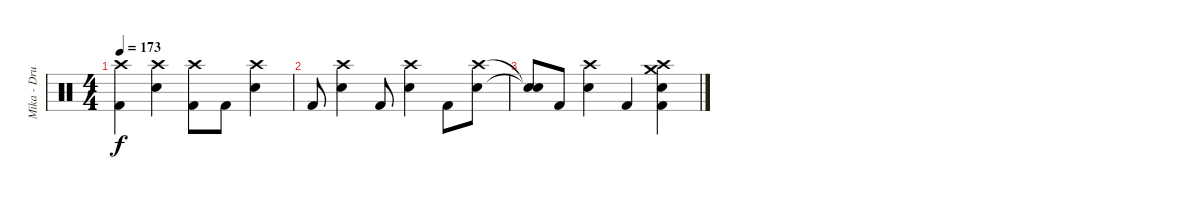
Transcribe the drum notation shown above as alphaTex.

\track ("Mika - Drums" "Mika - Dru") {instrument percussion}
\staff {score}
\articulation defaults
\ts (4 4)
\tempo 173
\clef neutral
\ks c
("Crash high (hit)" "Kick (hit) 2").4{dy f} ("Crash high (hit)" "Electric Snare (hit)").4 ("Crash high (hit)" "Kick (hit) 2").8 "Kick (hit) 2".8 ("Crash high (hit)" "Electric Snare (hit)").4 |
"Kick (hit) 2".8 ("Crash high (hit)" "Electric Snare (hit)").4 "Kick (hit) 2".8 ("Crash high (hit)" "Electric Snare (hit)").4 "Kick (hit) 2".8 ("Crash high (hit)" "Electric Snare (hit)").8 |
("Snare (hit)"{t} "Snare (hit)"{t}).8 "Kick (hit) 2".8 ("Crash high (hit)" "Electric Snare (hit)").4 "Kick (hit) 2".4 ("Crash medium (hit)" "Crash high (hit)" "Electric Snare (hit)" "Kick (hit) 2").4
